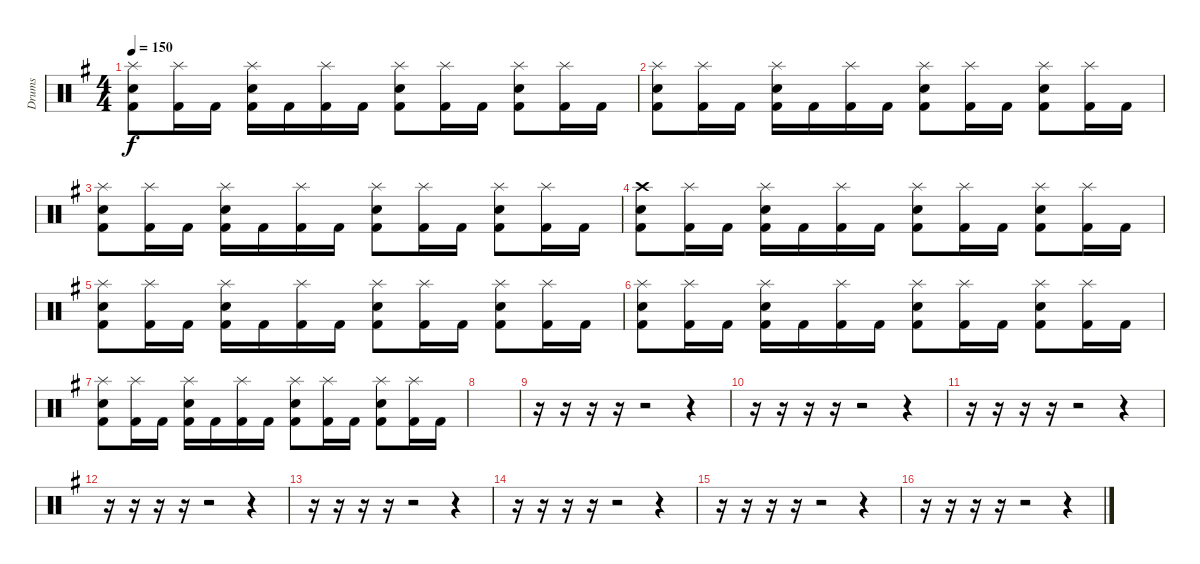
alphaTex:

\track ("Drums" "Drums") {instrument percussion}
\staff {score}
\articulation defaults
\ts (4 4)
\tempo 150
\clef neutral
\ks g
("Splash (hit)" "Snare (hit) 2" "Kick (hit) 2").8{dy f} ("Splash (hit)" "Kick (hit) 2").16 "Kick (hit) 2".16 ("Splash (hit)" "Snare (hit) 2" "Kick (hit) 2").16 "Kick (hit) 2".16 ("Splash (hit)" "Kick (hit) 2").16 "Kick (hit) 2".16 ("Splash (hit)" "Snare (hit) 2" "Kick (hit) 2").8 ("Splash (hit)" "Kick (hit) 2").16 "Kick (hit) 2".16 ("Splash (hit)" "Snare (hit) 2" "Kick (hit) 2").8 ("Splash (hit)" "Kick (hit) 2").16 "Kick (hit) 2".16 |
("Splash (hit)" "Snare (hit) 2" "Kick (hit) 2").8 ("Splash (hit)" "Kick (hit) 2").16 "Kick (hit) 2".16 ("Splash (hit)" "Snare (hit) 2" "Kick (hit) 2").16 "Kick (hit) 2".16 ("Splash (hit)" "Kick (hit) 2").16 "Kick (hit) 2".16 ("Splash (hit)" "Snare (hit) 2" "Kick (hit) 2").8 ("Splash (hit)" "Kick (hit) 2").16 "Kick (hit) 2".16 ("Splash (hit)" "Snare (hit) 2" "Kick (hit) 2").8 ("Splash (hit)" "Kick (hit) 2").16 "Kick (hit) 2".16 |
("Splash (hit)" "Snare (hit) 2" "Kick (hit) 2").8 ("Splash (hit)" "Kick (hit) 2").16 "Kick (hit) 2".16 ("Splash (hit)" "Snare (hit) 2" "Kick (hit) 2").16 "Kick (hit) 2".16 ("Splash (hit)" "Kick (hit) 2").16 "Kick (hit) 2".16 ("Splash (hit)" "Snare (hit) 2" "Kick (hit) 2").8 ("Splash (hit)" "Kick (hit) 2").16 "Kick (hit) 2".16 ("Splash (hit)" "Snare (hit) 2" "Kick (hit) 2").8 ("Splash (hit)" "Kick (hit) 2").16 "Kick (hit) 2".16 |
("Crash high (hit)" "Snare (hit) 2" "Kick (hit) 2").8 ("Splash (hit)" "Kick (hit) 2").16 "Kick (hit) 2".16 ("Splash (hit)" "Snare (hit) 2" "Kick (hit) 2").16 "Kick (hit) 2".16 ("Splash (hit)" "Kick (hit) 2").16 "Kick (hit) 2".16 ("Splash (hit)" "Snare (hit) 2" "Kick (hit) 2").8 ("Splash (hit)" "Kick (hit) 2").16 "Kick (hit) 2".16 ("Splash (hit)" "Snare (hit) 2" "Kick (hit) 2").8 ("Splash (hit)" "Kick (hit) 2").16 "Kick (hit) 2".16 |
("Splash (hit)" "Snare (hit) 2" "Kick (hit) 2").8 ("Splash (hit)" "Kick (hit) 2").16 "Kick (hit) 2".16 ("Splash (hit)" "Snare (hit) 2" "Kick (hit) 2").16 "Kick (hit) 2".16 ("Splash (hit)" "Kick (hit) 2").16 "Kick (hit) 2".16 ("Splash (hit)" "Snare (hit) 2" "Kick (hit) 2").8 ("Splash (hit)" "Kick (hit) 2").16 "Kick (hit) 2".16 ("Splash (hit)" "Snare (hit) 2" "Kick (hit) 2").8 ("Splash (hit)" "Kick (hit) 2").16 "Kick (hit) 2".16 |
("Splash (hit)" "Snare (hit) 2" "Kick (hit) 2").8 ("Splash (hit)" "Kick (hit) 2").16 "Kick (hit) 2".16 ("Splash (hit)" "Snare (hit) 2" "Kick (hit) 2").16 "Kick (hit) 2".16 ("Splash (hit)" "Kick (hit) 2").16 "Kick (hit) 2".16 ("Splash (hit)" "Snare (hit) 2" "Kick (hit) 2").8 ("Splash (hit)" "Kick (hit) 2").16 "Kick (hit) 2".16 ("Splash (hit)" "Snare (hit) 2" "Kick (hit) 2").8 ("Splash (hit)" "Kick (hit) 2").16 "Kick (hit) 2".16 |
("Splash (hit)" "Snare (hit) 2" "Kick (hit) 2").8 ("Splash (hit)" "Kick (hit) 2").16 "Kick (hit) 2".16 ("Splash (hit)" "Snare (hit) 2" "Kick (hit) 2").16 "Kick (hit) 2".16 ("Splash (hit)" "Kick (hit) 2").16 "Kick (hit) 2".16 ("Splash (hit)" "Snare (hit) 2" "Kick (hit) 2").8 ("Splash (hit)" "Kick (hit) 2").16 "Kick (hit) 2".16 ("Splash (hit)" "Snare (hit) 2" "Kick (hit) 2").8 ("Splash (hit)" "Kick (hit) 2").16 "Kick (hit) 2".16 |
|
r.16 r.16 r.16 r.16 r.2 r.4 |
r.16 r.16 r.16 r.16 r.2 r.4 |
r.16 r.16 r.16 r.16 r.2 r.4 |
r.16 r.16 r.16 r.16 r.2 r.4 |
r.16 r.16 r.16 r.16 r.2 r.4 |
r.16 r.16 r.16 r.16 r.2 r.4 |
r.16 r.16 r.16 r.16 r.2 r.4 |
r.16 r.16 r.16 r.16 r.2 r.4
